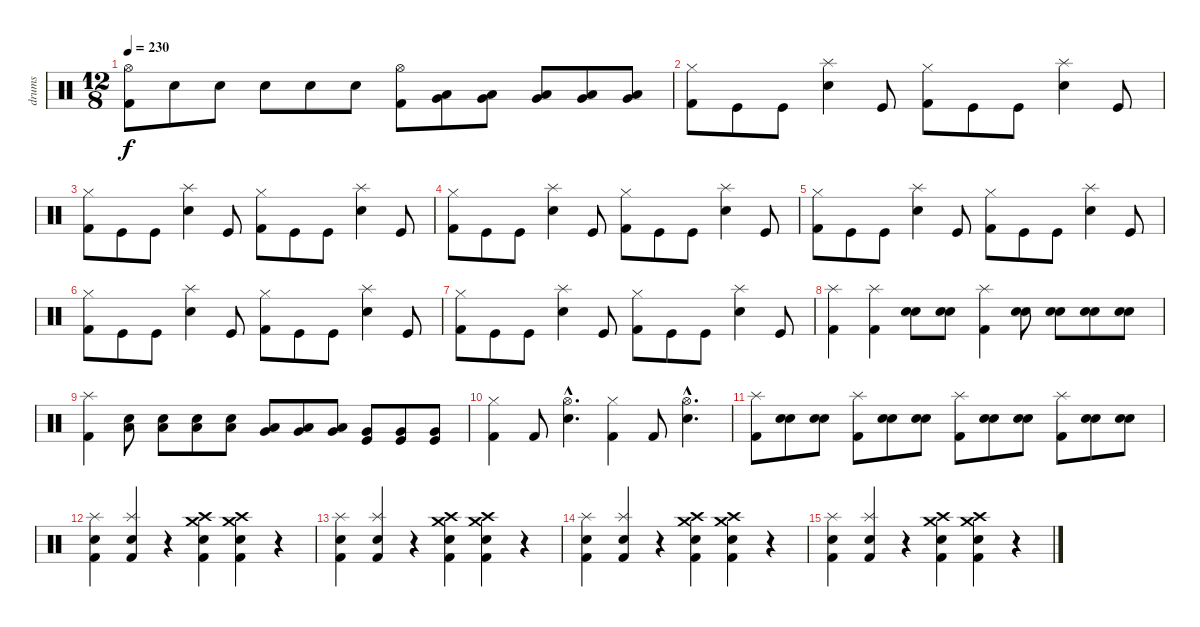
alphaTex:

\track ("drums" "drums") {instrument percussion}
\staff {score}
\articulation defaults
\ts (12 8)
\tempo 230
\clef neutral
\ks c
("Hi-Hat (open)" "Kick (hit) 2").8{dy f} "Snare (hit) 2".8 "Snare (hit) 2".8 "Snare (hit) 2".8 "Snare (hit) 2".8 "Snare (hit) 2".8 ("Hi-Hat (open)" "Kick (hit) 2").8 ("Low Tom (hit)" "Very Low Tom (hit)").8 ("Low Tom (hit)" "Very Low Tom (hit)").8 ("Low Tom (hit)" "Very Low Tom (hit)").8 ("Low Tom (hit)" "Very Low Tom (hit)").8 ("Low Floor Tom (hit)" "Very Low Tom (hit)").8 |
("Hi-Hat (closed)" "Kick (hit) 2").8 "Kick (hit)".8 "Kick (hit)".8 ("Splash (hit)" "Snare (hit) 2").4 "Kick (hit)".8 ("Hi-Hat (closed)" "Kick (hit) 2").8 "Kick (hit)".8 "Kick (hit)".8 ("Splash (hit)" "Snare (hit) 2").4 "Kick (hit)".8 |
("Hi-Hat (closed)" "Kick (hit) 2").8 "Kick (hit)".8 "Kick (hit)".8 ("Splash (hit)" "Snare (hit) 2").4 "Kick (hit)".8 ("Hi-Hat (closed)" "Kick (hit) 2").8 "Kick (hit)".8 "Kick (hit)".8 ("Splash (hit)" "Snare (hit) 2").4 "Kick (hit)".8 |
("Hi-Hat (closed)" "Kick (hit) 2").8 "Kick (hit)".8 "Kick (hit)".8 ("Splash (hit)" "Snare (hit) 2").4 "Kick (hit)".8 ("Hi-Hat (closed)" "Kick (hit) 2").8 "Kick (hit)".8 "Kick (hit)".8 ("Splash (hit)" "Snare (hit) 2").4 "Kick (hit)".8 |
("Hi-Hat (closed)" "Kick (hit) 2").8 "Kick (hit)".8 "Kick (hit)".8 ("Splash (hit)" "Snare (hit) 2").4 "Kick (hit)".8 ("Hi-Hat (closed)" "Kick (hit) 2").8 "Kick (hit)".8 "Kick (hit)".8 ("Splash (hit)" "Snare (hit) 2").4 "Kick (hit)".8 |
("Hi-Hat (closed)" "Kick (hit) 2").8 "Kick (hit)".8 "Kick (hit)".8 ("Splash (hit)" "Snare (hit) 2").4 "Kick (hit)".8 ("Hi-Hat (closed)" "Kick (hit) 2").8 "Kick (hit)".8 "Kick (hit)".8 ("Splash (hit)" "Snare (hit) 2").4 "Kick (hit)".8 |
("Hi-Hat (closed)" "Kick (hit) 2").8 "Kick (hit)".8 "Kick (hit)".8 ("Splash (hit)" "Snare (hit) 2").4 "Kick (hit)".8 ("Hi-Hat (closed)" "Kick (hit) 2").8 "Kick (hit)".8 "Kick (hit)".8 ("Splash (hit)" "Snare (hit) 2").4 "Kick (hit)".8 |
("Splash (hit)" "Kick (hit) 2").4 ("Splash (hit)" "Kick (hit) 2").4 ("Snare (hit) 2" "Snare (hit) 2").8 ("Electric Snare (hit)" "Snare (hit) 2").8 ("Splash (hit)" "Kick (hit) 2").4 ("Electric Snare (hit)" "Snare (hit) 2").8 ("Electric Snare (hit)" "Snare (hit) 2").8 ("Electric Snare (hit)" "Snare (hit) 2").8 ("Electric Snare (hit)" "Snare (hit) 2").8 |
("Splash (hit)" "Kick (hit) 2").4 ("Low Tom (hit)" "Snare (hit) 2").8 ("Low Tom (hit)" "Snare (hit) 2").8 ("Low Tom (hit)" "Snare (hit) 2").8 ("Low Tom (hit)" "Snare (hit) 2").8 ("Low Floor Tom (hit)" "Very Low Tom (hit)").8 ("Low Floor Tom (hit)" "Very Low Tom (hit)").8 ("Low Floor Tom (hit)" "Very Low Tom (hit)").8 ("Kick (hit)" "Very Low Tom (hit)").8 ("Kick (hit)" "Very Low Tom (hit)").8 ("Kick (hit)" "Very Low Tom (hit)").8 |
("Hi-Hat (closed)" "Kick (hit) 2").4 "Kick (hit) 2".8 ("Hi-Hat (open)"{hac} "Snare (hit) 2"{hac}).4{d} ("Hi-Hat (closed)" "Kick (hit) 2").4 "Kick (hit) 2".8 ("Hi-Hat (open)"{hac} "Snare (hit) 2"{hac}).4{d} |
("Splash (hit)" "Kick (hit) 2").8 ("Electric Snare (hit)" "Snare (hit) 2").8 ("Electric Snare (hit)" "Snare (hit) 2").8 ("Splash (hit)" "Kick (hit) 2").8 ("Electric Snare (hit)" "Snare (hit) 2").8 ("Electric Snare (hit)" "Snare (hit) 2").8 ("Splash (hit)" "Kick (hit) 2").8 ("Electric Snare (hit)" "Snare (hit) 2").8 ("Electric Snare (hit)" "Snare (hit) 2").8 ("Splash (hit)" "Kick (hit) 2").8 ("Snare (hit) 2" "Electric Snare (hit)").8 ("Snare (hit) 2" "Electric Snare (hit)").8 |
("Splash (hit)" "Snare (hit) 2" "Kick (hit) 2").4 ("Splash (hit)" "Electric Snare (hit)" "Kick (hit) 2").4 r.4 ("Crash medium (hit)" "Crash high (hit)" "Snare (hit) 2" "Kick (hit) 2").4 ("Crash medium (hit)" "Crash high (hit)" "Snare (hit) 2" "Kick (hit) 2").4 r.4 |
("Splash (hit)" "Snare (hit) 2" "Kick (hit) 2").4 ("Splash (hit)" "Electric Snare (hit)" "Kick (hit) 2").4 r.4 ("Crash medium (hit)" "Crash high (hit)" "Snare (hit) 2" "Kick (hit) 2").4 ("Crash medium (hit)" "Crash high (hit)" "Snare (hit) 2" "Kick (hit) 2").4 r.4 |
("Splash (hit)" "Snare (hit) 2" "Kick (hit) 2").4 ("Splash (hit)" "Electric Snare (hit)" "Kick (hit) 2").4 r.4 ("Crash medium (hit)" "Crash high (hit)" "Snare (hit) 2" "Kick (hit) 2").4 ("Crash medium (hit)" "Crash high (hit)" "Snare (hit) 2" "Kick (hit) 2").4 r.4 |
("Splash (hit)" "Snare (hit) 2" "Kick (hit) 2").4 ("Splash (hit)" "Electric Snare (hit)" "Kick (hit) 2").4 r.4 ("Crash medium (hit)" "Crash high (hit)" "Snare (hit) 2" "Kick (hit) 2").4 ("Crash medium (hit)" "Crash high (hit)" "Snare (hit) 2" "Kick (hit) 2").4 r.4
